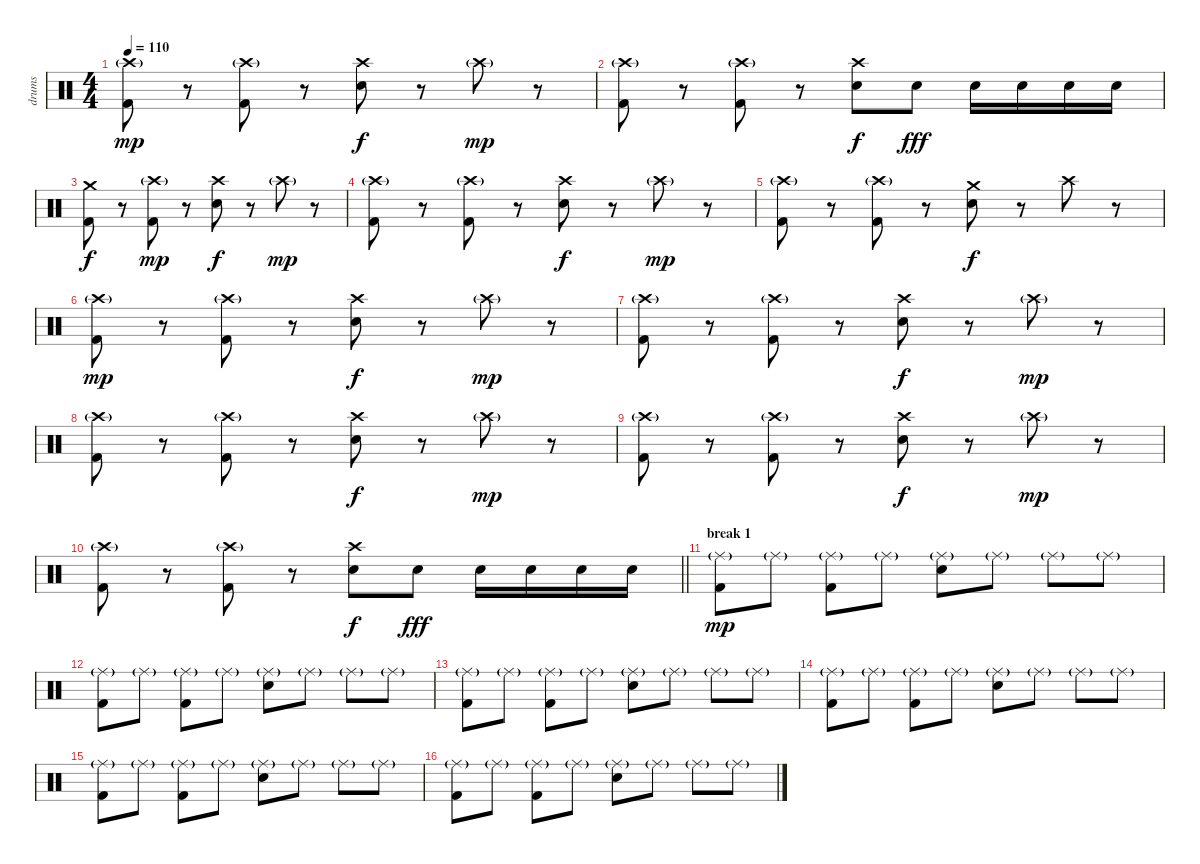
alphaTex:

\track ("drums" "drums") {instrument percussion}
\staff {score}
\articulation defaults
\ts (4 4)
\tempo 110
\clef neutral
\ks c
("Kick (hit) 2" "Crash high (hit)"{g}).8{dy mp} r.8 ("Kick (hit) 2" "Crash high (hit)"{g}).8 r.8 ("Electric Snare (hit)" "Crash high (hit)").8{dy f} r.8 "Crash high (hit)"{g}.8{dy mp} r.8 |
("Kick (hit) 2" "Crash high (hit)"{g}).8 r.8 ("Kick (hit) 2" "Crash high (hit)"{g}).8 r.8 ("Electric Snare (hit)" "Crash high (hit)").8{dy f} "Electric Snare (hit)".8{dy fff} "Electric Snare (hit)".16 "Electric Snare (hit)".16 "Electric Snare (hit)".16 "Electric Snare (hit)".16 |
("Kick (hit) 2" "Crash medium (hit)").8{dy f} r.8 ("Kick (hit) 2" "Crash high (hit)"{g}).8{dy mp} r.8 ("Electric Snare (hit)" "Crash high (hit)").8{dy f} r.8 "Crash high (hit)"{g}.8{dy mp} r.8 |
("Kick (hit) 2" "Crash high (hit)"{g}).8 r.8 ("Kick (hit) 2" "Crash high (hit)"{g}).8 r.8 ("Electric Snare (hit)" "Crash high (hit)").8{dy f} r.8 "Crash high (hit)"{g}.8{dy mp} r.8 |
("Kick (hit) 2" "Crash high (hit)"{g}).8 r.8 ("Kick (hit) 2" "Crash high (hit)"{g}).8 r.8 ("Electric Snare (hit)" "Crash medium (hit)").8{dy f} r.8 "Crash high (hit)".8 r.8 |
("Kick (hit) 2" "Crash high (hit)"{g}).8{dy mp} r.8 ("Kick (hit) 2" "Crash high (hit)"{g}).8 r.8 ("Electric Snare (hit)" "Crash high (hit)").8{dy f} r.8 "Crash high (hit)"{g}.8{dy mp} r.8 |
("Kick (hit) 2" "Crash high (hit)"{g}).8 r.8 ("Kick (hit) 2" "Crash high (hit)"{g}).8 r.8 ("Electric Snare (hit)" "Crash high (hit)").8{dy f} r.8 "Crash high (hit)"{g}.8{dy mp} r.8 |
("Kick (hit) 2" "Crash high (hit)"{g}).8 r.8 ("Kick (hit) 2" "Crash high (hit)"{g}).8 r.8 ("Electric Snare (hit)" "Crash high (hit)").8{dy f} r.8 "Crash high (hit)"{g}.8{dy mp} r.8 |
("Kick (hit) 2" "Crash high (hit)"{g}).8 r.8 ("Kick (hit) 2" "Crash high (hit)"{g}).8 r.8 ("Electric Snare (hit)" "Crash high (hit)").8{dy f} r.8 "Crash high (hit)"{g}.8{dy mp} r.8 |
\barLineRight lightlight
("Kick (hit) 2" "Crash high (hit)"{g}).8 r.8 ("Kick (hit) 2" "Crash high (hit)"{g}).8 r.8 ("Electric Snare (hit)" "Crash high (hit)").8{dy f} "Electric Snare (hit)".8{dy fff} "Electric Snare (hit)".16 "Electric Snare (hit)".16 "Electric Snare (hit)".16 "Electric Snare (hit)".16 |
\section ("" "break 1")
("Kick (hit) 2" "Ride (middle)"{g}).8{dy mp} "Ride (middle)"{g}.8 ("Kick (hit) 2" "Ride (middle)"{g}).8 "Ride (middle)"{g}.8 ("Electric Snare (hit)" "Ride (middle)"{g}).8 "Ride (middle)"{g}.8 "Ride (middle)"{g}.8 "Ride (middle)"{g}.8 |
("Kick (hit) 2" "Ride (middle)"{g}).8 "Ride (middle)"{g}.8 ("Kick (hit) 2" "Ride (middle)"{g}).8 "Ride (middle)"{g}.8 ("Electric Snare (hit)" "Ride (middle)"{g}).8 "Ride (middle)"{g}.8 "Ride (middle)"{g}.8 "Ride (middle)"{g}.8 |
("Kick (hit) 2" "Ride (middle)"{g}).8 "Ride (middle)"{g}.8 ("Kick (hit) 2" "Ride (middle)"{g}).8 "Ride (middle)"{g}.8 ("Electric Snare (hit)" "Ride (middle)"{g}).8 "Ride (middle)"{g}.8 "Ride (middle)"{g}.8 "Ride (middle)"{g}.8 |
("Kick (hit) 2" "Ride (middle)"{g}).8 "Ride (middle)"{g}.8 ("Kick (hit) 2" "Ride (middle)"{g}).8 "Ride (middle)"{g}.8 ("Electric Snare (hit)" "Ride (middle)"{g}).8 "Ride (middle)"{g}.8 "Ride (middle)"{g}.8 "Ride (middle)"{g}.8 |
("Kick (hit) 2" "Ride (middle)"{g}).8 "Ride (middle)"{g}.8 ("Kick (hit) 2" "Ride (middle)"{g}).8 "Ride (middle)"{g}.8 ("Electric Snare (hit)" "Ride (middle)"{g}).8 "Ride (middle)"{g}.8 "Ride (middle)"{g}.8 "Ride (middle)"{g}.8 |
("Kick (hit) 2" "Ride (middle)"{g}).8 "Ride (middle)"{g}.8 ("Kick (hit) 2" "Ride (middle)"{g}).8 "Ride (middle)"{g}.8 ("Electric Snare (hit)" "Ride (middle)"{g}).8 "Ride (middle)"{g}.8 "Ride (middle)"{g}.8 "Ride (middle)"{g}.8
